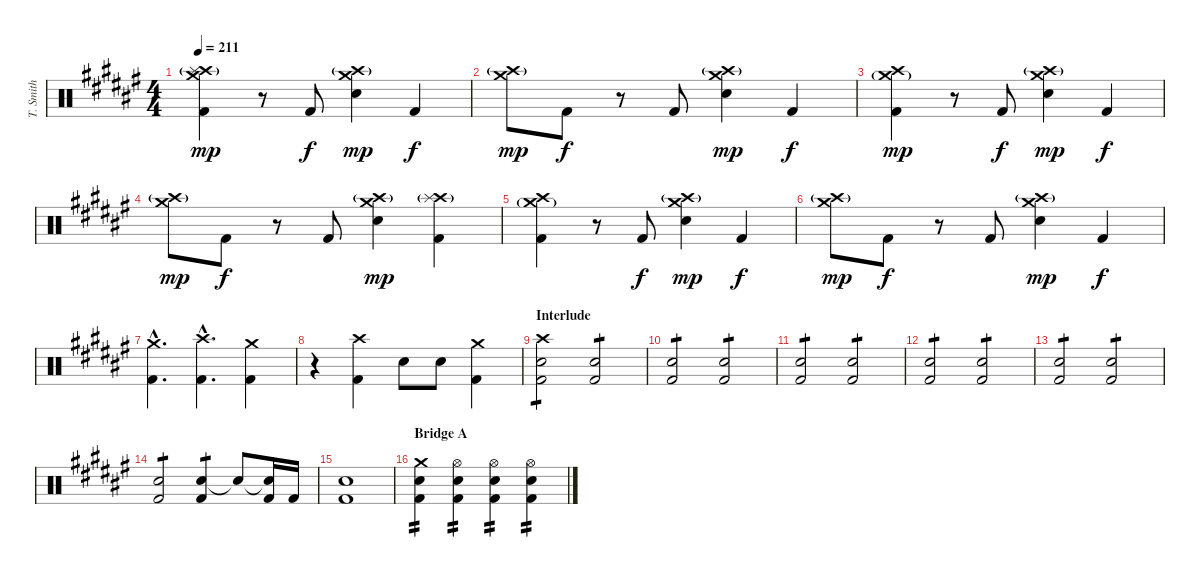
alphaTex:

\track ("T. Smith" "T. Smith") {instrument percussion}
\staff {score}
\articulation defaults
\ts (4 4)
\tempo 211
\clef neutral
\ks d#minor
("Crash medium (hit)" "Crash high (hit)"{g} "Splash (hit)" "Kick (hit) 2").4{dy mp} r.8 "Kick (hit) 2".8{dy f} ("Crash medium (hit)" "Crash high (hit)"{g} "Electric Snare (hit)").4{dy mp} "Kick (hit) 2".4{dy f} |
("Crash medium (hit)" "Crash high (hit)"{g}).8{dy mp} "Kick (hit) 2".8{dy f} r.8 "Kick (hit) 2".8 ("Crash medium (hit)" "Crash high (hit)"{g} "Electric Snare (hit)").4{dy mp} "Kick (hit) 2".4{dy f} |
("Crash medium (hit)"{g} "Crash high (hit)" "Kick (hit) 2").4{dy mp} r.8 "Kick (hit) 2".8{dy f} ("Crash medium (hit)" "Crash high (hit)"{g} "Electric Snare (hit)").4{dy mp} "Kick (hit) 2".4{dy f} |
("Crash medium (hit)" "Crash high (hit)"{g}).8{dy mp} "Kick (hit) 2".8{dy f} r.8 "Kick (hit) 2".8 ("Crash medium (hit)" "Crash high (hit)"{g} "Electric Snare (hit)").4{dy mp} ("Crash high (hit)"{g} "Splash (hit)" "Kick (hit) 2").4 |
("Crash medium (hit)"{g} "Crash high (hit)" "Kick (hit) 2").4 r.8 "Kick (hit) 2".8{dy f} ("Crash medium (hit)" "Crash high (hit)"{g} "Electric Snare (hit)").4{dy mp} "Kick (hit) 2".4{dy f} |
("Crash medium (hit)" "Crash high (hit)"{g}).8{dy mp} "Kick (hit) 2".8{dy f} r.8 "Kick (hit) 2".8 ("Crash medium (hit)" "Crash high (hit)"{g} "Electric Snare (hit)").4{dy mp} "Kick (hit) 2".4{dy f} |
("Crash medium (hit)"{hac} "Kick (hit) 2"{hac}).4{d} ("Crash high (hit)"{hac} "Kick (hit) 2"{hac}).4{d} ("Crash medium (hit)" "Kick (hit) 2").4 |
r.4 ("Crash high (hit)" "Kick (hit) 2").4 "Electric Snare (hit)".8 "Electric Snare (hit)".8 ("Crash medium (hit)" "Kick (hit) 2").4 |
\section ("" "Interlude")
("Crash high (hit)" "Electric Snare (hit)" "Kick (hit) 2").2{tp 1 volume 9} ("Electric Snare (hit)" "Kick (hit) 2").2{tp 1} |
("Electric Snare (hit)" "Kick (hit) 2").2{tp 1} ("Electric Snare (hit)" "Kick (hit) 2").2{tp 1} |
("Electric Snare (hit)" "Kick (hit) 2").2{tp 1 volume 11} ("Electric Snare (hit)" "Kick (hit) 2").2{tp 1} |
("Electric Snare (hit)" "Kick (hit) 2").2{tp 1} ("Electric Snare (hit)" "Kick (hit) 2").2{tp 1} |
("Electric Snare (hit)" "Kick (hit) 2").2{tp 1} ("Electric Snare (hit)" "Kick (hit) 2").2{tp 1} |
("Electric Snare (hit)" "Kick (hit) 2").2{tp 1 volume 13} ("Electric Snare (hit)" "Kick (hit) 2").4{tp 1} "Snare (hit)"{t}.8 ("Snare (hit)"{t} "Kick (hit) 2").16 "Kick (hit) 2".16 |
("Electric Snare (hit)" "Kick (hit) 2").1 |
\section ("" "Bridge A")
("Crash medium (hit)" "Electric Snare (hit)" "Kick (hit) 2").4{tp 2} ("Hi-Hat (open)" "Electric Snare (hit)" "Kick (hit) 2").4{tp 2} ("Hi-Hat (open)" "Electric Snare (hit)" "Kick (hit) 2").4{tp 2} ("Hi-Hat (open)" "Electric Snare (hit)" "Kick (hit) 2").4{tp 2}
